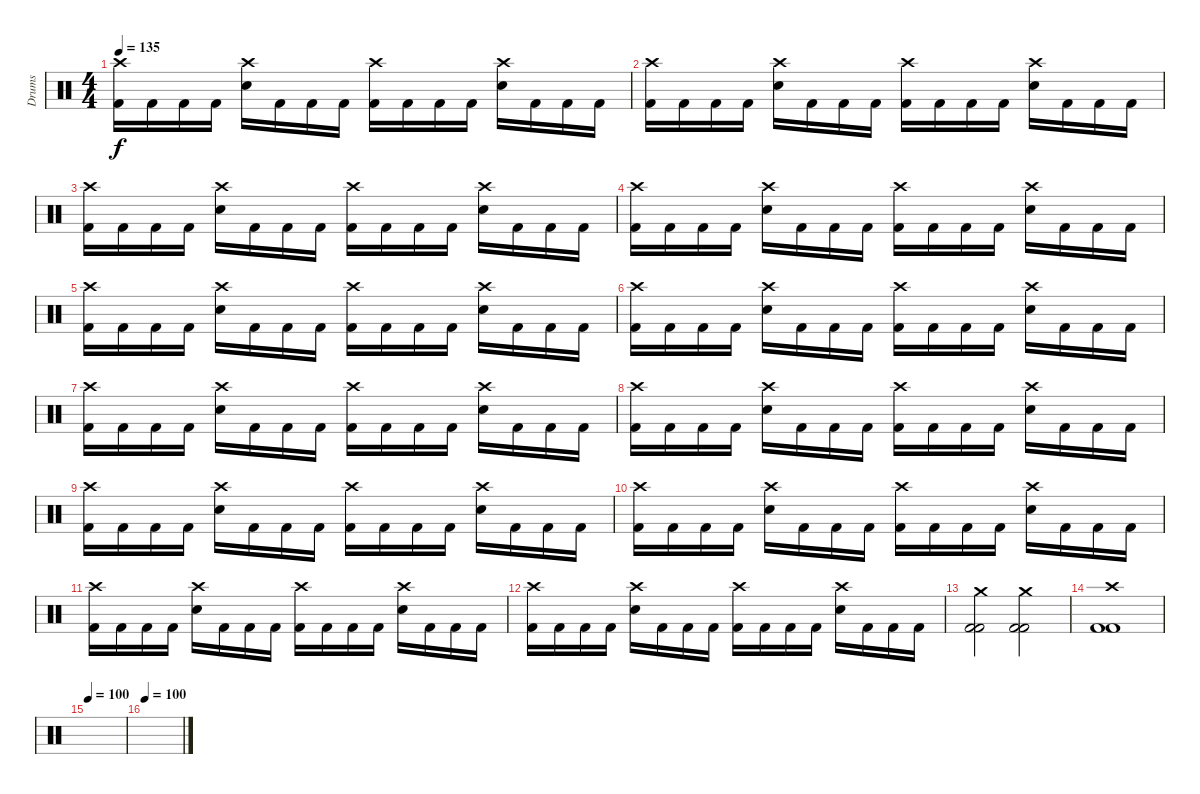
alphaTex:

\track ("Drums" "Drums") {instrument percussion}
\staff {score}
\articulation defaults
\ts (4 4)
\tempo 135
\clef neutral
\ks c
("Crash high (hit)" "Kick (hit) 2").16{dy f} "Kick (hit) 2".16 "Kick (hit) 2".16 "Kick (hit) 2".16 ("Crash high (hit)" "Electric Snare (hit)").16 "Kick (hit) 2".16 "Kick (hit) 2".16 "Kick (hit) 2".16 ("Crash high (hit)" "Kick (hit) 2").16 "Kick (hit) 2".16 "Kick (hit) 2".16 "Kick (hit) 2".16 ("Electric Snare (hit)" "Crash high (hit)").16 "Kick (hit) 2".16 "Kick (hit) 2".16 "Kick (hit) 2".16 |
("Crash high (hit)" "Kick (hit) 2").16 "Kick (hit) 2".16 "Kick (hit) 2".16 "Kick (hit) 2".16 ("Crash high (hit)" "Electric Snare (hit)").16 "Kick (hit) 2".16 "Kick (hit) 2".16 "Kick (hit) 2".16 ("Crash high (hit)" "Kick (hit) 2").16 "Kick (hit) 2".16 "Kick (hit) 2".16 "Kick (hit) 2".16 ("Electric Snare (hit)" "Crash high (hit)").16 "Kick (hit) 2".16 "Kick (hit) 2".16 "Kick (hit) 2".16 |
("Crash high (hit)" "Kick (hit) 2").16 "Kick (hit) 2".16 "Kick (hit) 2".16 "Kick (hit) 2".16 ("Crash high (hit)" "Electric Snare (hit)").16 "Kick (hit) 2".16 "Kick (hit) 2".16 "Kick (hit) 2".16 ("Crash high (hit)" "Kick (hit) 2").16 "Kick (hit) 2".16 "Kick (hit) 2".16 "Kick (hit) 2".16 ("Electric Snare (hit)" "Crash high (hit)").16 "Kick (hit) 2".16 "Kick (hit) 2".16 "Kick (hit) 2".16 |
("Crash high (hit)" "Kick (hit) 2").16 "Kick (hit) 2".16 "Kick (hit) 2".16 "Kick (hit) 2".16 ("Crash high (hit)" "Electric Snare (hit)").16 "Kick (hit) 2".16 "Kick (hit) 2".16 "Kick (hit) 2".16 ("Crash high (hit)" "Kick (hit) 2").16 "Kick (hit) 2".16 "Kick (hit) 2".16 "Kick (hit) 2".16 ("Electric Snare (hit)" "Crash high (hit)").16 "Kick (hit) 2".16 "Kick (hit) 2".16 "Kick (hit) 2".16 |
("Crash high (hit)" "Kick (hit) 2").16 "Kick (hit) 2".16 "Kick (hit) 2".16 "Kick (hit) 2".16 ("Crash high (hit)" "Electric Snare (hit)").16 "Kick (hit) 2".16 "Kick (hit) 2".16 "Kick (hit) 2".16 ("Crash high (hit)" "Kick (hit) 2").16 "Kick (hit) 2".16 "Kick (hit) 2".16 "Kick (hit) 2".16 ("Electric Snare (hit)" "Crash high (hit)").16 "Kick (hit) 2".16 "Kick (hit) 2".16 "Kick (hit) 2".16 |
("Crash high (hit)" "Kick (hit) 2").16 "Kick (hit) 2".16 "Kick (hit) 2".16 "Kick (hit) 2".16 ("Crash high (hit)" "Electric Snare (hit)").16 "Kick (hit) 2".16 "Kick (hit) 2".16 "Kick (hit) 2".16 ("Crash high (hit)" "Kick (hit) 2").16 "Kick (hit) 2".16 "Kick (hit) 2".16 "Kick (hit) 2".16 ("Electric Snare (hit)" "Crash high (hit)").16 "Kick (hit) 2".16 "Kick (hit) 2".16 "Kick (hit) 2".16 |
("Crash high (hit)" "Kick (hit) 2").16 "Kick (hit) 2".16 "Kick (hit) 2".16 "Kick (hit) 2".16 ("Crash high (hit)" "Electric Snare (hit)").16 "Kick (hit) 2".16 "Kick (hit) 2".16 "Kick (hit) 2".16 ("Crash high (hit)" "Kick (hit) 2").16 "Kick (hit) 2".16 "Kick (hit) 2".16 "Kick (hit) 2".16 ("Electric Snare (hit)" "Crash high (hit)").16 "Kick (hit) 2".16 "Kick (hit) 2".16 "Kick (hit) 2".16 |
("Crash high (hit)" "Kick (hit) 2").16 "Kick (hit) 2".16 "Kick (hit) 2".16 "Kick (hit) 2".16 ("Crash high (hit)" "Electric Snare (hit)").16 "Kick (hit) 2".16 "Kick (hit) 2".16 "Kick (hit) 2".16 ("Crash high (hit)" "Kick (hit) 2").16 "Kick (hit) 2".16 "Kick (hit) 2".16 "Kick (hit) 2".16 ("Electric Snare (hit)" "Crash high (hit)").16 "Kick (hit) 2".16 "Kick (hit) 2".16 "Kick (hit) 2".16 |
("Crash high (hit)" "Kick (hit) 2").16 "Kick (hit) 2".16 "Kick (hit) 2".16 "Kick (hit) 2".16 ("Crash high (hit)" "Electric Snare (hit)").16 "Kick (hit) 2".16 "Kick (hit) 2".16 "Kick (hit) 2".16 ("Crash high (hit)" "Kick (hit) 2").16 "Kick (hit) 2".16 "Kick (hit) 2".16 "Kick (hit) 2".16 ("Electric Snare (hit)" "Crash high (hit)").16 "Kick (hit) 2".16 "Kick (hit) 2".16 "Kick (hit) 2".16 |
("Crash high (hit)" "Kick (hit) 2").16 "Kick (hit) 2".16 "Kick (hit) 2".16 "Kick (hit) 2".16 ("Crash high (hit)" "Electric Snare (hit)").16 "Kick (hit) 2".16 "Kick (hit) 2".16 "Kick (hit) 2".16 ("Crash high (hit)" "Kick (hit) 2").16 "Kick (hit) 2".16 "Kick (hit) 2".16 "Kick (hit) 2".16 ("Electric Snare (hit)" "Crash high (hit)").16 "Kick (hit) 2".16 "Kick (hit) 2".16 "Kick (hit) 2".16 |
("Crash high (hit)" "Kick (hit) 2").16 "Kick (hit) 2".16 "Kick (hit) 2".16 "Kick (hit) 2".16 ("Crash high (hit)" "Electric Snare (hit)").16 "Kick (hit) 2".16 "Kick (hit) 2".16 "Kick (hit) 2".16 ("Crash high (hit)" "Kick (hit) 2").16 "Kick (hit) 2".16 "Kick (hit) 2".16 "Kick (hit) 2".16 ("Electric Snare (hit)" "Crash high (hit)").16 "Kick (hit) 2".16 "Kick (hit) 2".16 "Kick (hit) 2".16 |
("Crash high (hit)" "Kick (hit) 2").16 "Kick (hit) 2".16 "Kick (hit) 2".16 "Kick (hit) 2".16 ("Crash high (hit)" "Electric Snare (hit)").16 "Kick (hit) 2".16 "Kick (hit) 2".16 "Kick (hit) 2".16 ("Crash high (hit)" "Kick (hit) 2").16 "Kick (hit) 2".16 "Kick (hit) 2".16 "Kick (hit) 2".16 ("Electric Snare (hit)" "Crash high (hit)").16 "Kick (hit) 2".16 "Kick (hit) 2".16 "Kick (hit) 2".16 |
("Crash medium (hit)" "Kick (hit) 2" "Kick (hit) 2").2 ("Crash medium (hit)" "Kick (hit) 2" "Kick (hit) 2").2 |
("Kick (hit) 2" "Kick (hit) 2" "Crash high (hit)").1 |
\tempo 100
|
\tempo 100
